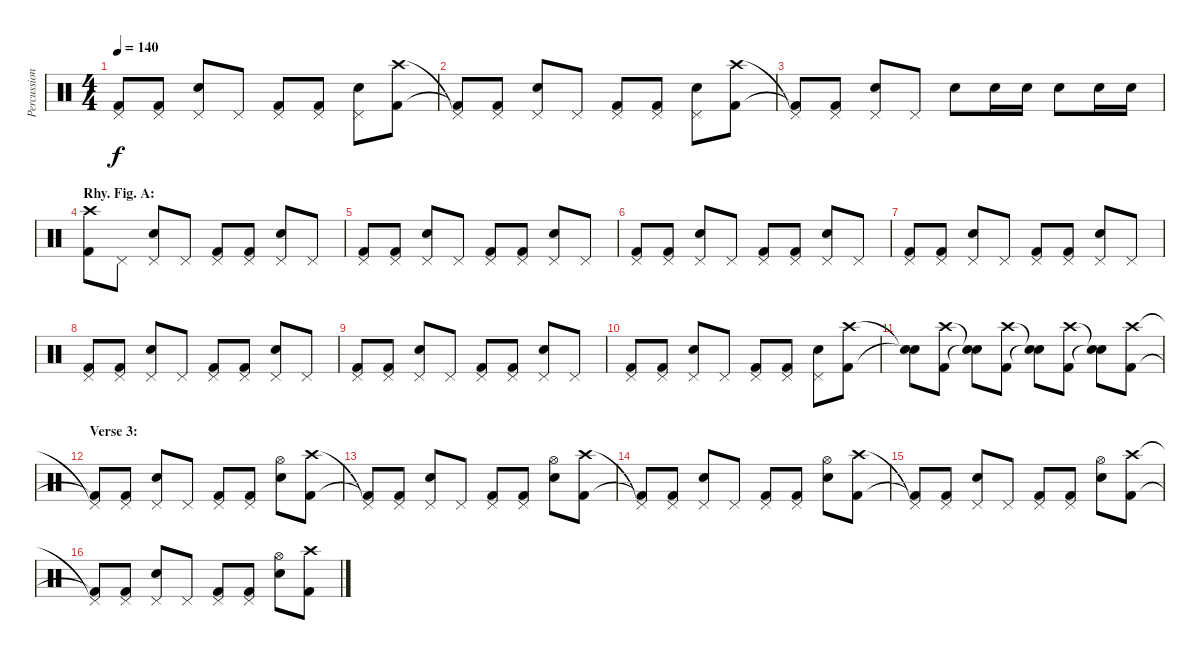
\track ("Percussion" "Percussion") {instrument percussion}
\staff {score}
\articulation defaults
\ts (4 4)
\tempo 140
\clef neutral
\ks c
("Pedal Hi-Hat (hit)"{t} "Kick (hit) 2"{t}).8{dy f} ("Pedal Hi-Hat (hit)" "Kick (hit) 2").8 ("Pedal Hi-Hat (hit)" "Snare (hit) 2").8 "Pedal Hi-Hat (hit)".8 ("Pedal Hi-Hat (hit)" "Kick (hit) 2").8 ("Pedal Hi-Hat (hit)" "Kick (hit) 2").8 ("Pedal Hi-Hat (hit)" "Snare (hit) 2").8 ("Crash high (hit)" "Kick (hit) 2").8 |
("Pedal Hi-Hat (hit)"{t} "Kick (hit) 2"{t}).8 ("Pedal Hi-Hat (hit)" "Kick (hit) 2").8 ("Pedal Hi-Hat (hit)" "Snare (hit) 2").8 "Pedal Hi-Hat (hit)".8 ("Pedal Hi-Hat (hit)" "Kick (hit) 2").8 ("Pedal Hi-Hat (hit)" "Kick (hit) 2").8 ("Pedal Hi-Hat (hit)" "Snare (hit) 2").8 ("Crash high (hit)" "Kick (hit) 2").8 |
("Pedal Hi-Hat (hit)"{t} "Kick (hit) 2"{t}).8 ("Pedal Hi-Hat (hit)" "Kick (hit) 2").8 ("Pedal Hi-Hat (hit)" "Snare (hit) 2").8 "Pedal Hi-Hat (hit)".8 "Snare (hit) 2".8 "Snare (hit) 2".16 "Snare (hit) 2".16 "Snare (hit) 2".8 "Snare (hit) 2".16 "Snare (hit) 2".16 |
\section ("" "Rhy. Fig. A:")
("Crash high (hit)" "Kick (hit) 2").8 "Pedal Hi-Hat (hit)".8 ("Pedal Hi-Hat (hit)" "Snare (hit) 2").8 "Pedal Hi-Hat (hit)".8 ("Pedal Hi-Hat (hit)" "Kick (hit) 2").8 ("Pedal Hi-Hat (hit)" "Kick (hit) 2").8 ("Pedal Hi-Hat (hit)" "Snare (hit) 2").8 "Pedal Hi-Hat (hit)".8 |
("Pedal Hi-Hat (hit)" "Kick (hit) 2").8 ("Pedal Hi-Hat (hit)" "Kick (hit) 2").8 ("Pedal Hi-Hat (hit)" "Snare (hit) 2").8 "Pedal Hi-Hat (hit)".8 ("Pedal Hi-Hat (hit)" "Kick (hit) 2").8 ("Pedal Hi-Hat (hit)" "Kick (hit) 2").8 ("Pedal Hi-Hat (hit)" "Snare (hit) 2").8 "Pedal Hi-Hat (hit)".8 |
("Pedal Hi-Hat (hit)" "Kick (hit) 2").8 ("Pedal Hi-Hat (hit)" "Kick (hit) 2").8 ("Pedal Hi-Hat (hit)" "Snare (hit) 2").8 "Pedal Hi-Hat (hit)".8 ("Pedal Hi-Hat (hit)" "Kick (hit) 2").8 ("Pedal Hi-Hat (hit)" "Kick (hit) 2").8 ("Pedal Hi-Hat (hit)" "Snare (hit) 2").8 "Pedal Hi-Hat (hit)".8 |
("Pedal Hi-Hat (hit)" "Kick (hit) 2").8 ("Pedal Hi-Hat (hit)" "Kick (hit) 2").8 ("Pedal Hi-Hat (hit)" "Snare (hit) 2").8 "Pedal Hi-Hat (hit)".8 ("Pedal Hi-Hat (hit)" "Kick (hit) 2").8 ("Pedal Hi-Hat (hit)" "Kick (hit) 2").8 ("Pedal Hi-Hat (hit)" "Snare (hit) 2").8 "Pedal Hi-Hat (hit)".8 |
("Pedal Hi-Hat (hit)" "Kick (hit) 2").8 ("Pedal Hi-Hat (hit)" "Kick (hit) 2").8 ("Pedal Hi-Hat (hit)" "Snare (hit) 2").8 "Pedal Hi-Hat (hit)".8 ("Pedal Hi-Hat (hit)" "Kick (hit) 2").8 ("Pedal Hi-Hat (hit)" "Kick (hit) 2").8 ("Pedal Hi-Hat (hit)" "Snare (hit) 2").8 "Pedal Hi-Hat (hit)".8 |
("Pedal Hi-Hat (hit)" "Kick (hit) 2").8 ("Pedal Hi-Hat (hit)" "Kick (hit) 2").8 ("Pedal Hi-Hat (hit)" "Snare (hit) 2").8 "Pedal Hi-Hat (hit)".8 ("Pedal Hi-Hat (hit)" "Kick (hit) 2").8 ("Pedal Hi-Hat (hit)" "Kick (hit) 2").8 ("Pedal Hi-Hat (hit)" "Snare (hit) 2").8 "Pedal Hi-Hat (hit)".8 |
("Pedal Hi-Hat (hit)" "Kick (hit) 2").8 ("Pedal Hi-Hat (hit)" "Kick (hit) 2").8 ("Pedal Hi-Hat (hit)" "Snare (hit) 2").8 "Pedal Hi-Hat (hit)".8 ("Pedal Hi-Hat (hit)" "Kick (hit) 2").8 ("Pedal Hi-Hat (hit)" "Kick (hit) 2").8 ("Pedal Hi-Hat (hit)" "Snare (hit) 2").8 ("Crash high (hit)" "Kick (hit) 2").8 |
("Snare (hit)"{t} "Snare (hit)"{t}).8 ("Crash high (hit)" "Kick (hit) 2").8 ("Snare (hit)"{t} "Snare (hit)"{t}).8 ("Crash high (hit)" "Kick (hit) 2").8 ("Snare (hit)"{t} "Snare (hit)"{t}).8 ("Crash high (hit)" "Kick (hit) 2").8 ("Snare (hit)"{t} "Snare (hit)"{t}).8 ("Crash high (hit)" "Kick (hit) 2").8 |
\section ("" "Verse 3:")
("Pedal Hi-Hat (hit)"{t} "Kick (hit) 2"{t}).8 ("Pedal Hi-Hat (hit)" "Kick (hit) 2").8 ("Pedal Hi-Hat (hit)" "Snare (hit) 2").8 "Pedal Hi-Hat (hit)".8 ("Pedal Hi-Hat (hit)" "Kick (hit) 2").8 ("Pedal Hi-Hat (hit)" "Kick (hit) 2").8 ("Hi-Hat (open)" "Snare (hit) 2").8 ("Crash high (hit)" "Kick (hit) 2").8 |
("Pedal Hi-Hat (hit)"{t} "Kick (hit) 2"{t}).8 ("Pedal Hi-Hat (hit)" "Kick (hit) 2").8 ("Pedal Hi-Hat (hit)" "Snare (hit) 2").8 "Pedal Hi-Hat (hit)".8 ("Pedal Hi-Hat (hit)" "Kick (hit) 2").8 ("Pedal Hi-Hat (hit)" "Kick (hit) 2").8 ("Hi-Hat (open)" "Snare (hit) 2").8 ("Crash high (hit)" "Kick (hit) 2").8 |
("Pedal Hi-Hat (hit)"{t} "Kick (hit) 2"{t}).8 ("Pedal Hi-Hat (hit)" "Kick (hit) 2").8 ("Pedal Hi-Hat (hit)" "Snare (hit) 2").8 "Pedal Hi-Hat (hit)".8 ("Pedal Hi-Hat (hit)" "Kick (hit) 2").8 ("Pedal Hi-Hat (hit)" "Kick (hit) 2").8 ("Hi-Hat (open)" "Snare (hit) 2").8 ("Crash high (hit)" "Kick (hit) 2").8 |
("Pedal Hi-Hat (hit)"{t} "Kick (hit) 2"{t}).8 ("Pedal Hi-Hat (hit)" "Kick (hit) 2").8 ("Pedal Hi-Hat (hit)" "Snare (hit) 2").8 "Pedal Hi-Hat (hit)".8 ("Pedal Hi-Hat (hit)" "Kick (hit) 2").8 ("Pedal Hi-Hat (hit)" "Kick (hit) 2").8 ("Hi-Hat (open)" "Snare (hit) 2").8 ("Crash high (hit)" "Kick (hit) 2").8 |
("Pedal Hi-Hat (hit)"{t} "Kick (hit) 2"{t}).8 ("Pedal Hi-Hat (hit)" "Kick (hit) 2").8 ("Pedal Hi-Hat (hit)" "Snare (hit) 2").8 "Pedal Hi-Hat (hit)".8 ("Pedal Hi-Hat (hit)" "Kick (hit) 2").8 ("Pedal Hi-Hat (hit)" "Kick (hit) 2").8 ("Hi-Hat (open)" "Snare (hit) 2").8 ("Crash high (hit)" "Kick (hit) 2").8
